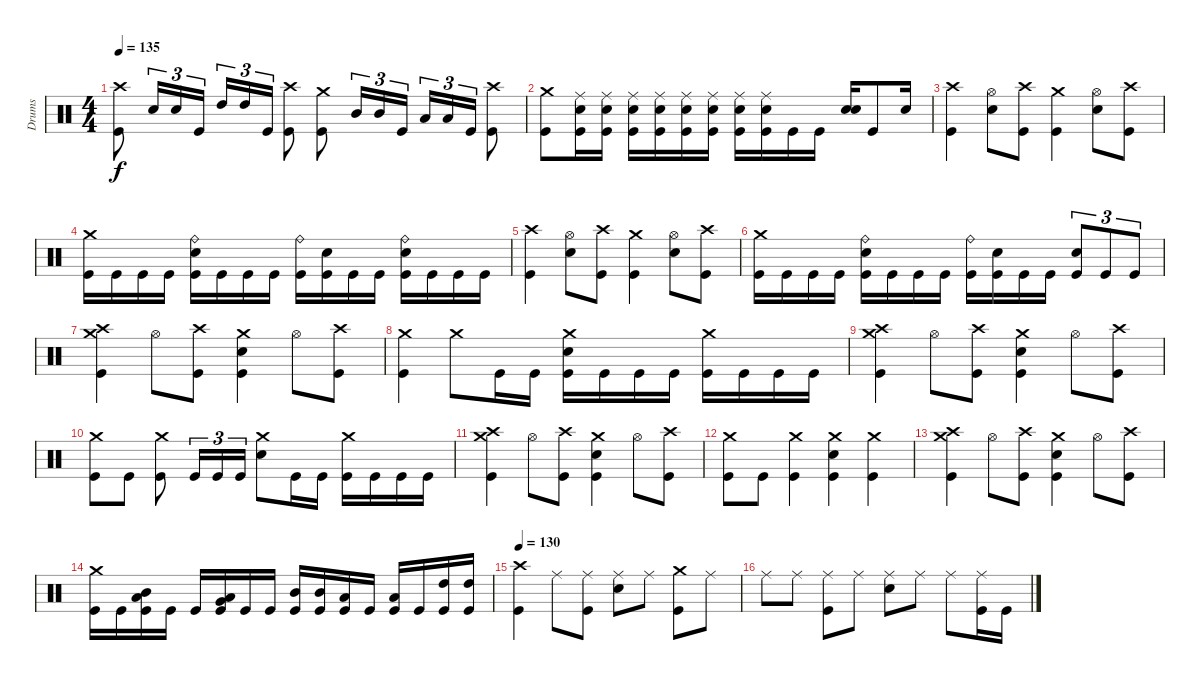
\track ("Drums" "Drums") {instrument percussion}
\staff {score}
\articulation defaults
\ts (4 4)
\tempo 135
\clef neutral
\ks c
("Crash high (hit)" "Kick (hit)").8{dy f} "Snare (hit) 2".16{tu (3 2)} "Snare (hit) 2".16{tu (3 2)} "Kick (hit)".16{tu (3 2)} "High Tom (hit)".16{tu (3 2)} "High Tom (hit)".16{tu (3 2)} "Kick (hit)".16{tu (3 2)} ("Crash high (hit)" "Kick (hit)").8 ("Crash medium (hit)" "Kick (hit)").8 "Mid Tom (hit)".16{tu (3 2)} "Mid Tom (hit)".16{tu (3 2)} "Kick (hit)".16{tu (3 2)} "Low Tom (hit)".16{tu (3 2)} "Low Tom (hit)".16{tu (3 2)} "Kick (hit)".16{tu (3 2)} ("Crash high (hit)" "Kick (hit)").8 |
("Crash medium (hit)" "Kick (hit)").8 ("Ride (middle)" "Snare (hit) 2" "Kick (hit)").16 ("Ride (middle)" "Snare (hit) 2" "Kick (hit)").16 ("Ride (middle)" "Snare (hit) 2" "Kick (hit)").16 ("Ride (middle)" "Snare (hit) 2" "Kick (hit)").16 ("Ride (middle)" "Snare (hit) 2" "Kick (hit)").16 ("Ride (middle)" "Snare (hit) 2" "Kick (hit)").16 ("Ride (middle)" "Snare (hit) 2" "Kick (hit)").16 ("Ride (middle)" "Snare (hit) 2" "Kick (hit)").16 "Kick (hit)".16 "Kick (hit)".16 ("Snare (hit) 2" "Snare (hit) 2").16 "Kick (hit)".8 "Snare (hit) 2".16 |
("Crash high (hit)" "Kick (hit)").4 ("Hi-Hat (open)" "Snare (hit) 2").8 ("Crash high (hit)" "Kick (hit)").8 ("Crash medium (hit)" "Kick (hit)").4 ("Hi-Hat (open)" "Snare (hit) 2").8 ("Crash high (hit)" "Kick (hit)").8 |
("Crash medium (hit)" "Kick (hit)").16 "Kick (hit)".16 "Kick (hit)".16 "Kick (hit)".16 ("Ride (bell)" "Snare (hit) 2" "Kick (hit)").16 "Kick (hit)".16 "Kick (hit)".16 "Kick (hit)".16 ("Ride (bell)" "Kick (hit)").16 ("Snare (hit) 2" "Kick (hit)").16 "Kick (hit)".16 "Kick (hit)".16 ("Ride (bell)" "Snare (hit) 2" "Kick (hit)").16 "Kick (hit)".16 "Kick (hit)".16 "Kick (hit)".16 |
("Crash high (hit)" "Kick (hit)").4 ("Hi-Hat (open)" "Snare (hit) 2").8 ("Crash high (hit)" "Kick (hit)").8 ("Crash medium (hit)" "Kick (hit)").4 ("Hi-Hat (open)" "Snare (hit) 2").8 ("Crash high (hit)" "Kick (hit)").8 |
("Crash medium (hit)" "Kick (hit)").16 "Kick (hit)".16 "Kick (hit)".16 "Kick (hit)".16 ("Ride (bell)" "Snare (hit) 2" "Kick (hit)").16 "Kick (hit)".16 "Kick (hit)".16 "Kick (hit)".16 ("Ride (bell)" "Kick (hit)").16 ("Snare (hit) 2" "Kick (hit)").16 "Kick (hit)".16 "Kick (hit)".16 ("Snare (hit) 2" "Kick (hit)").8{tu (3 2)} "Kick (hit)".8{tu (3 2)} "Kick (hit)".8{tu (3 2)} |
("Crash high (hit)" "Crash medium (hit)" "Kick (hit)").4 "Hi-Hat (open)".8 ("Crash high (hit)" "Kick (hit)").8 ("Crash medium (hit)" "Snare (hit) 2" "Kick (hit)").4 "Hi-Hat (open)".8 ("Crash high (hit)" "Kick (hit)").8 |
("Crash medium (hit)" "Kick (hit)").4 "Crash medium (hit)".8 "Kick (hit)".16 "Kick (hit)".16 ("Crash medium (hit)" "Snare (hit) 2" "Kick (hit)").16 "Kick (hit)".16 "Kick (hit)".16 "Kick (hit)".16 ("Crash medium (hit)" "Kick (hit)").16 "Kick (hit)".16 "Kick (hit)".16 "Kick (hit)".16 |
("Crash high (hit)" "Crash medium (hit)" "Kick (hit)").4 "Hi-Hat (open)".8 ("Crash high (hit)" "Kick (hit)").8 ("Crash medium (hit)" "Snare (hit) 2" "Kick (hit)").4 "Hi-Hat (open)".8 ("Crash high (hit)" "Kick (hit)").8 |
("Crash medium (hit)" "Kick (hit)").8 "Kick (hit)".8 ("Crash medium (hit)" "Kick (hit)").8 "Kick (hit)".16{tu (3 2)} "Kick (hit)".16{tu (3 2)} "Kick (hit)".16{tu (3 2)} ("Crash medium (hit)" "Snare (hit) 2").8 "Kick (hit)".16 "Kick (hit)".16 ("Crash medium (hit)" "Kick (hit)").16 "Kick (hit)".16 "Kick (hit)".16 "Kick (hit)".16 |
("Crash high (hit)" "Crash medium (hit)" "Kick (hit)").4 "Hi-Hat (open)".8 ("Crash high (hit)" "Kick (hit)").8 ("Crash medium (hit)" "Snare (hit) 2" "Kick (hit)").4 "Hi-Hat (open)".8 ("Crash high (hit)" "Kick (hit)").8 |
("Crash medium (hit)" "Kick (hit)").8 "Kick (hit)".8 ("Crash medium (hit)" "Kick (hit)").4 ("Crash medium (hit)" "Snare (hit) 2" "Kick (hit)").4 ("Crash medium (hit)" "Kick (hit)").4 |
("Crash high (hit)" "Crash medium (hit)" "Kick (hit)").4 "Hi-Hat (open)".8 ("Crash high (hit)" "Kick (hit)").8 ("Crash medium (hit)" "Snare (hit) 2" "Kick (hit)").4 "Hi-Hat (open)".8 ("Crash high (hit)" "Kick (hit)").8 |
("Crash medium (hit)" "Kick (hit)").16 "Kick (hit)".16 ("Low Tom (hit)" "Mid Tom (hit)" "Kick (hit)").16 "Kick (hit)".16 "Kick (hit)".16 ("Very Low Tom (hit)" "Low Tom (hit)" "Kick (hit)").16 "Kick (hit)".16 "Kick (hit)".16 ("Mid Tom (hit)" "Kick (hit)").16 ("Mid Tom (hit)" "Kick (hit)").16 ("Low Tom (hit)" "Kick (hit)").16 "Kick (hit)".16 ("Low Tom (hit)" "Kick (hit)").16 "Kick (hit)".16 ("High Tom (hit)" "Kick (hit)").16 ("High Tom (hit)" "Kick (hit)").16 |
\tempo 130
("Crash high (hit)" "Kick (hit)").4 "Ride (middle)".8 ("Ride (middle)" "Kick (hit)").8 ("Ride (middle)" "Snare (hit) 2").8 "Ride (middle)".8 ("Crash medium (hit)" "Kick (hit)").8 "Ride (middle)".8 |
"Ride (middle)".8 "Ride (middle)".8 ("Ride (middle)" "Kick (hit)").8 "Ride (middle)".8 ("Ride (middle)" "Snare (hit) 2").8 "Ride (middle)".8 "Ride (middle)".8 ("Ride (middle)" "Kick (hit)").16 "Kick (hit)".16
